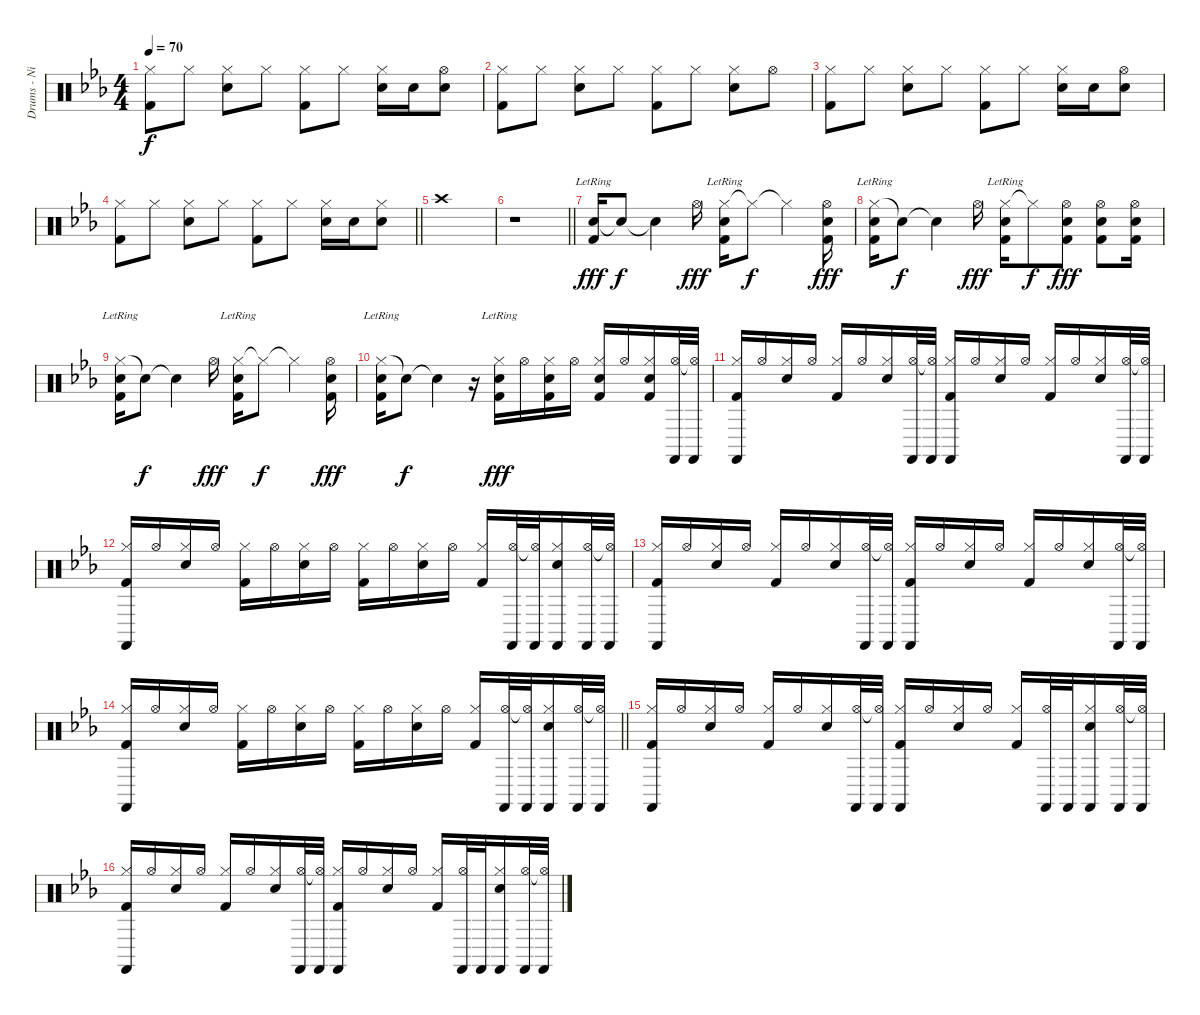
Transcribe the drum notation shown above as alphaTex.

\track ("Drums - Nigel Olsen" "Drums - Ni") {instrument percussion}
\staff {score}
\articulation defaults
\ts (4 4)
\tempo 70
\clef neutral
\ks cminor
("Hi-Hat (closed)" "Kick (hit) 2").8{dy f} "Hi-Hat (closed)".8 ("Hi-Hat (closed)" "Snare (hit) 2").8 "Hi-Hat (closed)".8 ("Hi-Hat (closed)" "Kick (hit) 2").8 "Hi-Hat (closed)".8 ("Hi-Hat (closed)" "Snare (hit) 2").16 "Snare (hit) 2".16 ("Hi-Hat (open)" "Snare (hit) 2").8 |
("Hi-Hat (closed)" "Kick (hit) 2").8 "Hi-Hat (closed)".8 ("Hi-Hat (closed)" "Snare (hit) 2").8 "Hi-Hat (closed)".8 ("Hi-Hat (closed)" "Kick (hit) 2").8 "Hi-Hat (closed)".8 ("Hi-Hat (closed)" "Snare (hit) 2").8 "Hi-Hat (open)".8 |
("Hi-Hat (closed)" "Kick (hit) 2").8 "Hi-Hat (closed)".8 ("Hi-Hat (closed)" "Snare (hit) 2").8 "Hi-Hat (closed)".8 ("Hi-Hat (closed)" "Kick (hit) 2").8 "Hi-Hat (closed)".8 ("Hi-Hat (closed)" "Snare (hit) 2").16 "Snare (hit) 2".16 ("Hi-Hat (open)" "Snare (hit) 2").8 |
\barLineRight lightlight
("Hi-Hat (closed)" "Kick (hit) 2").8 "Hi-Hat (closed)".8 ("Hi-Hat (closed)" "Snare (hit) 2").8 "Hi-Hat (closed)".8 ("Hi-Hat (closed)" "Kick (hit) 2").8 "Hi-Hat (closed)".8 ("Hi-Hat (closed)" "Snare (hit) 2").16 "Snare (hit) 2".16 ("Hi-Hat (closed)" "Snare (hit) 2").8 |
"Crash high (hit)".1 |
\barLineRight lightlight
r.1 |
("Snare (hit) 2" "Kick (hit) 2"{lr}).16{dy fff volume 11} "Snare (hit) 2"{t}.8{dy f} "Snare (hit) 2"{t}.4 "Hi-Hat (open)".16{dy fff} ("Hi-Hat (closed)" "Snare (hit) 2"{lr} "Kick (hit) 2"{lr}).16 "Hi-Hat (closed)"{t}.8{dy f} "Hi-Hat (closed)"{t}.4 ("Hi-Hat (open)" "Snare (hit) 2" "Kick (hit) 2").16{dy fff} |
("Hi-Hat (closed)" "Snare (hit) 2" "Kick (hit) 2"{lr}).16 "Snare (hit) 2"{t}.8{dy f} "Snare (hit) 2"{t}.4 "Hi-Hat (open)".16{dy fff} ("Hi-Hat (closed)" "Snare (hit) 2"{lr} "Kick (hit) 2"{lr}).16 "Hi-Hat (closed)"{t}.8{dy f} ("Hi-Hat (open)" "Snare (hit) 2" "Kick (hit) 2").8{dy fff} ("Hi-Hat (open)" "Snare (hit) 2" "Kick (hit) 2").8 ("Hi-Hat (open)" "Snare (hit) 2" "Kick (hit) 2").16 |
("Hi-Hat (closed)" "Snare (hit) 2" "Kick (hit) 2"{lr}).16 "Snare (hit) 2"{t}.8{dy f} "Snare (hit) 2"{t}.4 "Hi-Hat (open)".16{dy fff} ("Hi-Hat (closed)" "Snare (hit) 2"{lr} "Kick (hit) 2"{lr}).16 "Hi-Hat (closed)"{t}.8{dy f} "Hi-Hat (closed)"{t}.4 ("Hi-Hat (open)" "Snare (hit) 2" "Kick (hit) 2").16{dy fff} |
("Hi-Hat (closed)" "Snare (hit) 2" "Kick (hit) 2"{lr}).16 "Snare (hit) 2"{t}.8{dy f} "Snare (hit) 2"{t}.4 r.16 ("Hi-Hat (closed)" "Snare (hit) 2"{lr} "Kick (hit) 2"{lr}).16{dy fff} "Hi-Hat (open)".16 ("Hi-Hat (closed)" "Snare (hit) 2" "Kick (hit) 2").16 "Hi-Hat (open)".16 ("Hi-Hat (closed)" "Snare (hit) 2" "Kick (hit) 2").16 "Hi-Hat (open)".16 ("Hi-Hat (closed)" "Snare (hit) 2" "Kick (hit) 2").16 ("Castanets (hit)" "Hi-Hat (open)").32 ("Castanets (hit)" "Hi-Hat (open)"{t}).32 |
("Castanets (hit)" "Hi-Hat (closed)" "Kick (hit) 2").16 "Hi-Hat (open)".16 ("Hi-Hat (closed)" "Snare (hit) 2").16 "Hi-Hat (open)".16 ("Hi-Hat (closed)" "Kick (hit) 2").16 "Hi-Hat (open)".16 ("Hi-Hat (closed)" "Snare (hit) 2").16 ("Castanets (hit)" "Hi-Hat (open)").32 ("Castanets (hit)" "Hi-Hat (open)"{t}).32 ("Castanets (hit)" "Hi-Hat (closed)" "Kick (hit) 2").16 "Hi-Hat (open)".16 ("Hi-Hat (closed)" "Snare (hit) 2").16 "Hi-Hat (open)".16 ("Hi-Hat (closed)" "Kick (hit) 2").16 "Hi-Hat (open)".16 ("Hi-Hat (closed)" "Snare (hit) 2").16 ("Castanets (hit)" "Hi-Hat (open)").32 ("Castanets (hit)" "Hi-Hat (open)"{t}).32 |
("Castanets (hit)" "Hi-Hat (closed)" "Kick (hit) 2").16 "Hi-Hat (open)".16 ("Hi-Hat (closed)" "Snare (hit) 2").16 "Hi-Hat (open)".16 ("Hi-Hat (closed)" "Kick (hit) 2").16 "Hi-Hat (open)".16 ("Hi-Hat (closed)" "Snare (hit) 2").16 "Hi-Hat (open)".16 ("Hi-Hat (closed)" "Kick (hit) 2").16 "Hi-Hat (open)".16 ("Hi-Hat (closed)" "Snare (hit) 2").16 "Hi-Hat (open)".16 ("Hi-Hat (closed)" "Kick (hit) 2").16 ("Castanets (hit)" "Hi-Hat (open)").32 ("Castanets (hit)" "Hi-Hat (open)"{t}).32 ("Castanets (hit)" "Hi-Hat (closed)" "Snare (hit) 2").16 ("Castanets (hit)" "Hi-Hat (open)").32 ("Castanets (hit)" "Hi-Hat (open)"{t}).32 |
("Castanets (hit)" "Hi-Hat (closed)" "Kick (hit) 2").16 "Hi-Hat (open)".16 ("Hi-Hat (closed)" "Snare (hit) 2").16 "Hi-Hat (open)".16 ("Hi-Hat (closed)" "Kick (hit) 2").16 "Hi-Hat (open)".16 ("Hi-Hat (closed)" "Snare (hit) 2").16 ("Castanets (hit)" "Hi-Hat (open)").32 ("Castanets (hit)" "Hi-Hat (open)"{t}).32 ("Castanets (hit)" "Hi-Hat (closed)" "Kick (hit) 2").16 "Hi-Hat (open)".16 ("Hi-Hat (closed)" "Snare (hit) 2").16 "Hi-Hat (open)".16 ("Hi-Hat (closed)" "Kick (hit) 2").16 "Hi-Hat (open)".16 ("Hi-Hat (closed)" "Snare (hit) 2").16 ("Castanets (hit)" "Hi-Hat (open)").32 ("Castanets (hit)" "Hi-Hat (open)"{t}).32 |
\barLineRight lightlight
("Castanets (hit)" "Hi-Hat (closed)" "Kick (hit) 2").16 "Hi-Hat (open)".16 ("Hi-Hat (closed)" "Snare (hit) 2").16 "Hi-Hat (open)".16 ("Hi-Hat (closed)" "Kick (hit) 2").16 "Hi-Hat (open)".16 ("Hi-Hat (closed)" "Snare (hit) 2").16 "Hi-Hat (open)".16 ("Hi-Hat (closed)" "Kick (hit) 2").16 "Hi-Hat (open)".16 ("Hi-Hat (closed)" "Snare (hit) 2").16 "Hi-Hat (open)".16 ("Hi-Hat (closed)" "Kick (hit) 2").16 ("Castanets (hit)" "Hi-Hat (open)").32 ("Castanets (hit)" "Hi-Hat (open)"{t}).32 ("Castanets (hit)" "Hi-Hat (closed)" "Snare (hit) 2").16 ("Castanets (hit)" "Hi-Hat (open)").32 ("Castanets (hit)" "Hi-Hat (open)"{t}).32 |
("Castanets (hit)" "Hi-Hat (closed)" "Kick (hit) 2").16 "Hi-Hat (open)".16 ("Hi-Hat (closed)" "Snare (hit) 2").16 "Hi-Hat (open)".16 ("Hi-Hat (closed)" "Kick (hit) 2").16 "Hi-Hat (open)".16 ("Hi-Hat (closed)" "Snare (hit) 2").16 ("Castanets (hit)" "Hi-Hat (open)").32 ("Castanets (hit)" "Hi-Hat (open)"{t}).32 ("Castanets (hit)" "Hi-Hat (closed)" "Kick (hit) 2").16 "Hi-Hat (open)".16 ("Hi-Hat (closed)" "Snare (hit) 2").16 "Hi-Hat (open)".16 ("Hi-Hat (closed)" "Kick (hit) 2").16 ("Castanets (hit)" "Hi-Hat (open)").32 "Castanets (hit)".32 ("Castanets (hit)" "Hi-Hat (closed)" "Snare (hit) 2").16 ("Castanets (hit)" "Hi-Hat (open)").32 ("Castanets (hit)" "Hi-Hat (open)"{t}).32 |
("Castanets (hit)" "Hi-Hat (closed)" "Kick (hit) 2").16 "Hi-Hat (open)".16 ("Hi-Hat (closed)" "Snare (hit) 2").16 "Hi-Hat (open)".16 ("Hi-Hat (closed)" "Kick (hit) 2").16 "Hi-Hat (open)".16 ("Hi-Hat (closed)" "Snare (hit) 2").16 ("Castanets (hit)" "Hi-Hat (open)").32 ("Castanets (hit)" "Hi-Hat (open)"{t}).32 ("Castanets (hit)" "Hi-Hat (closed)" "Kick (hit) 2").16 "Hi-Hat (open)".16 ("Hi-Hat (closed)" "Snare (hit) 2").16 "Hi-Hat (open)".16 ("Hi-Hat (closed)" "Kick (hit) 2").16 ("Castanets (hit)" "Hi-Hat (open)").32 "Castanets (hit)".32 ("Castanets (hit)" "Hi-Hat (closed)" "Snare (hit) 2").16 ("Castanets (hit)" "Hi-Hat (open)").32 ("Castanets (hit)" "Hi-Hat (open)"{t}).32
